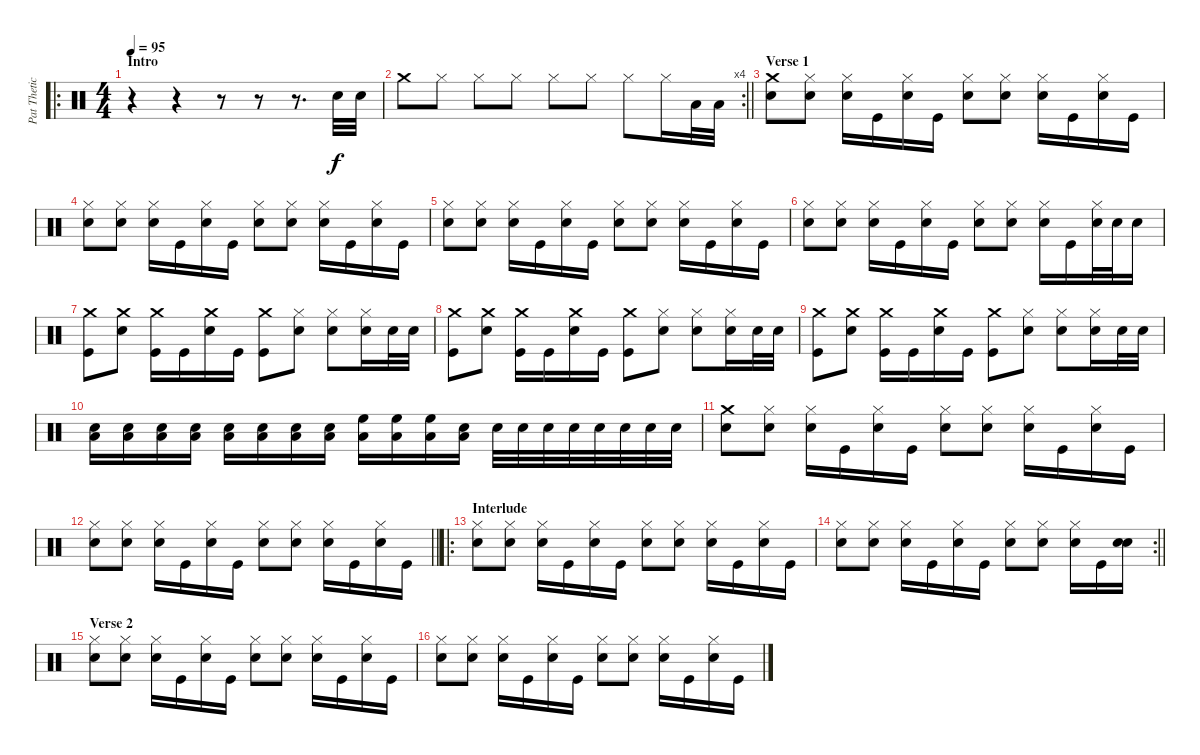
\track ("Pat Thetic" "Pat Thetic") {instrument percussion}
\staff {score}
\articulation defaults
\ro
\ts (4 4)
\section ("" "Intro")
\tempo 95
\clef neutral
\ks c
r.4{dy f} r.4 r.8 r.8 r.8{d} "Electric Snare (hit)".32 "Electric Snare (hit)".32 |
\rc 4
\barLineRight lightlight "Crash medium (hit)".8 "Hi-Hat (closed)".8 "Hi-Hat (closed)".8 "Hi-Hat (closed)".8 "Hi-Hat (closed)".8 "Hi-Hat (closed)".8 "Hi-Hat (closed)".8 "Hi-Hat (closed)".16 "Low Tom (hit)".32 "Low Tom (hit)".32
|
\section ("" "Verse 1")
("Crash medium (hit)" "Electric Snare (hit)").8 ("Hi-Hat (closed)" "Electric Snare (hit)").8 ("Hi-Hat (closed)" "Electric Snare (hit)").16 "Kick (hit)".16 ("Hi-Hat (closed)" "Electric Snare (hit)").16 "Kick (hit)".16 ("Hi-Hat (closed)" "Electric Snare (hit)").8 ("Hi-Hat (closed)" "Electric Snare (hit)").8 ("Hi-Hat (closed)" "Electric Snare (hit)").16 "Kick (hit)".16 ("Hi-Hat (closed)" "Electric Snare (hit)").16 "Kick (hit)".16 |
("Hi-Hat (closed)" "Electric Snare (hit)").8 ("Hi-Hat (closed)" "Electric Snare (hit)").8 ("Hi-Hat (closed)" "Electric Snare (hit)").16 "Kick (hit)".16 ("Hi-Hat (closed)" "Electric Snare (hit)").16 "Kick (hit)".16 ("Hi-Hat (closed)" "Electric Snare (hit)").8 ("Hi-Hat (closed)" "Electric Snare (hit)").8 ("Hi-Hat (closed)" "Electric Snare (hit)").16 "Kick (hit)".16 ("Hi-Hat (closed)" "Electric Snare (hit)").16 "Kick (hit)".16 |
("Hi-Hat (closed)" "Electric Snare (hit)").8 ("Hi-Hat (closed)" "Electric Snare (hit)").8 ("Hi-Hat (closed)" "Electric Snare (hit)").16 "Kick (hit)".16 ("Hi-Hat (closed)" "Electric Snare (hit)").16 "Kick (hit)".16 ("Hi-Hat (closed)" "Electric Snare (hit)").8 ("Hi-Hat (closed)" "Electric Snare (hit)").8 ("Hi-Hat (closed)" "Electric Snare (hit)").16 "Kick (hit)".16 ("Hi-Hat (closed)" "Electric Snare (hit)").16 "Kick (hit)".16 |
("Hi-Hat (closed)" "Electric Snare (hit)").8 ("Hi-Hat (closed)" "Electric Snare (hit)").8 ("Hi-Hat (closed)" "Electric Snare (hit)").16 "Kick (hit)".16 ("Hi-Hat (closed)" "Electric Snare (hit)").16 "Kick (hit)".16 ("Hi-Hat (closed)" "Electric Snare (hit)").8 ("Hi-Hat (closed)" "Electric Snare (hit)").8 ("Hi-Hat (closed)" "Electric Snare (hit)").16 "Kick (hit)".16 ("Hi-Hat (closed)" "Electric Snare (hit)").32 "Electric Snare (hit)".32 "Electric Snare (hit)".16 |
("Crash medium (hit)" "Kick (hit)").8 ("Crash medium (hit)" "Electric Snare (hit)").8 ("Crash medium (hit)" "Kick (hit)").16 "Kick (hit)".16 ("Crash medium (hit)" "Electric Snare (hit)").16 "Kick (hit)".16 ("Crash medium (hit)" "Kick (hit)").8 ("Hi-Hat (closed)" "Electric Snare (hit)").8 ("Hi-Hat (closed)" "Electric Snare (hit)").8 ("Hi-Hat (closed)" "Electric Snare (hit)").16 "Electric Snare (hit)".32 "Electric Snare (hit)".32 |
("Crash medium (hit)" "Kick (hit)").8 ("Crash medium (hit)" "Electric Snare (hit)").8 ("Crash medium (hit)" "Kick (hit)").16 "Kick (hit)".16 ("Crash medium (hit)" "Electric Snare (hit)").16 "Kick (hit)".16 ("Crash medium (hit)" "Kick (hit)").8 ("Hi-Hat (closed)" "Electric Snare (hit)").8 ("Hi-Hat (closed)" "Electric Snare (hit)").8 ("Hi-Hat (closed)" "Electric Snare (hit)").16 "Electric Snare (hit)".32 "Electric Snare (hit)".32 |
("Crash medium (hit)" "Kick (hit)").8 ("Crash medium (hit)" "Electric Snare (hit)").8 ("Crash medium (hit)" "Kick (hit)").16 "Kick (hit)".16 ("Crash medium (hit)" "Electric Snare (hit)").16 "Kick (hit)".16 ("Crash medium (hit)" "Kick (hit)").8 ("Hi-Hat (closed)" "Electric Snare (hit)").8 ("Hi-Hat (closed)" "Electric Snare (hit)").8 ("Hi-Hat (closed)" "Electric Snare (hit)").16 "Electric Snare (hit)".32 "Electric Snare (hit)".32 |
("Low Floor Tom (hit)" "Electric Snare (hit)").16 ("Low Floor Tom (hit)" "Electric Snare (hit)").16 ("Low Floor Tom (hit)" "Electric Snare (hit)").16 ("Low Floor Tom (hit)" "Electric Snare (hit)").16 ("Low Floor Tom (hit)" "Electric Snare (hit)").16 ("Low Floor Tom (hit)" "Electric Snare (hit)").16 ("Low Floor Tom (hit)" "Electric Snare (hit)").16 ("Low Floor Tom (hit)" "Electric Snare (hit)").16 ("Low Floor Tom (hit)" "High Floor Tom (hit)").16 ("Low Floor Tom (hit)" "High Floor Tom (hit)").16 ("Low Floor Tom (hit)" "High Floor Tom (hit)").16 ("Low Floor Tom (hit)" "Electric Snare (hit)").16 "Electric Snare (hit)".32 "Electric Snare (hit)".32 "Electric Snare (hit)".32 "Electric Snare (hit)".32 "Electric Snare (hit)".32 "Electric Snare (hit)".32 "Electric Snare (hit)".32 "Electric Snare (hit)".32 |
("Crash medium (hit)" "Electric Snare (hit)").8 ("Hi-Hat (closed)" "Electric Snare (hit)").8 ("Hi-Hat (closed)" "Electric Snare (hit)").16 "Kick (hit)".16 ("Hi-Hat (closed)" "Electric Snare (hit)").16 "Kick (hit)".16 ("Hi-Hat (closed)" "Electric Snare (hit)").8 ("Hi-Hat (closed)" "Electric Snare (hit)").8 ("Hi-Hat (closed)" "Electric Snare (hit)").16 "Kick (hit)".16 ("Hi-Hat (closed)" "Electric Snare (hit)").16 "Kick (hit)".16 |
\barLineRight lightlight
("Hi-Hat (closed)" "Electric Snare (hit)").8 ("Hi-Hat (closed)" "Electric Snare (hit)").8 ("Hi-Hat (closed)" "Electric Snare (hit)").16 "Kick (hit)".16 ("Hi-Hat (closed)" "Electric Snare (hit)").16 "Kick (hit)".16 ("Hi-Hat (closed)" "Electric Snare (hit)").8 ("Hi-Hat (closed)" "Electric Snare (hit)").8 ("Hi-Hat (closed)" "Electric Snare (hit)").16 "Kick (hit)".16 ("Hi-Hat (closed)" "Electric Snare (hit)").16 "Kick (hit)".16 |
\ro
\section ("" "Interlude")
("Hi-Hat (closed)" "Electric Snare (hit)").8 ("Hi-Hat (closed)" "Electric Snare (hit)").8 ("Hi-Hat (closed)" "Electric Snare (hit)").16 "Kick (hit)".16 ("Hi-Hat (closed)" "Electric Snare (hit)").16 "Kick (hit)".16 ("Hi-Hat (closed)" "Electric Snare (hit)").8 ("Hi-Hat (closed)" "Electric Snare (hit)").8 ("Hi-Hat (closed)" "Electric Snare (hit)").16 "Kick (hit)".16 ("Hi-Hat (closed)" "Electric Snare (hit)").16 "Kick (hit)".16 |
\rc 2
\barLineRight lightlight
("Hi-Hat (closed)" "Electric Snare (hit)").8 ("Hi-Hat (closed)" "Electric Snare (hit)").8 ("Hi-Hat (closed)" "Electric Snare (hit)").16 "Kick (hit)".16 ("Hi-Hat (closed)" "Electric Snare (hit)").16 "Kick (hit)".16 ("Hi-Hat (closed)" "Electric Snare (hit)").8 ("Hi-Hat (closed)" "Electric Snare (hit)").8 ("Hi-Hat (closed)" "Electric Snare (hit)").16 "Kick (hit)".16 ("Electric Snare (hit)" "Electric Snare (hit)").16 |
\section ("" "Verse 2")
("Hi-Hat (closed)" "Electric Snare (hit)").8 ("Hi-Hat (closed)" "Electric Snare (hit)").8 ("Hi-Hat (closed)" "Electric Snare (hit)").16 "Kick (hit)".16 ("Hi-Hat (closed)" "Electric Snare (hit)").16 "Kick (hit)".16 ("Hi-Hat (closed)" "Electric Snare (hit)").8 ("Hi-Hat (closed)" "Electric Snare (hit)").8 ("Hi-Hat (closed)" "Electric Snare (hit)").16 "Kick (hit)".16 ("Hi-Hat (closed)" "Electric Snare (hit)").16 "Kick (hit)".16 |
("Hi-Hat (closed)" "Electric Snare (hit)").8 ("Hi-Hat (closed)" "Electric Snare (hit)").8 ("Hi-Hat (closed)" "Electric Snare (hit)").16 "Kick (hit)".16 ("Hi-Hat (closed)" "Electric Snare (hit)").16 "Kick (hit)".16 ("Hi-Hat (closed)" "Electric Snare (hit)").8 ("Hi-Hat (closed)" "Electric Snare (hit)").8 ("Hi-Hat (closed)" "Electric Snare (hit)").16 "Kick (hit)".16 ("Hi-Hat (closed)" "Electric Snare (hit)").16 "Kick (hit)".16
